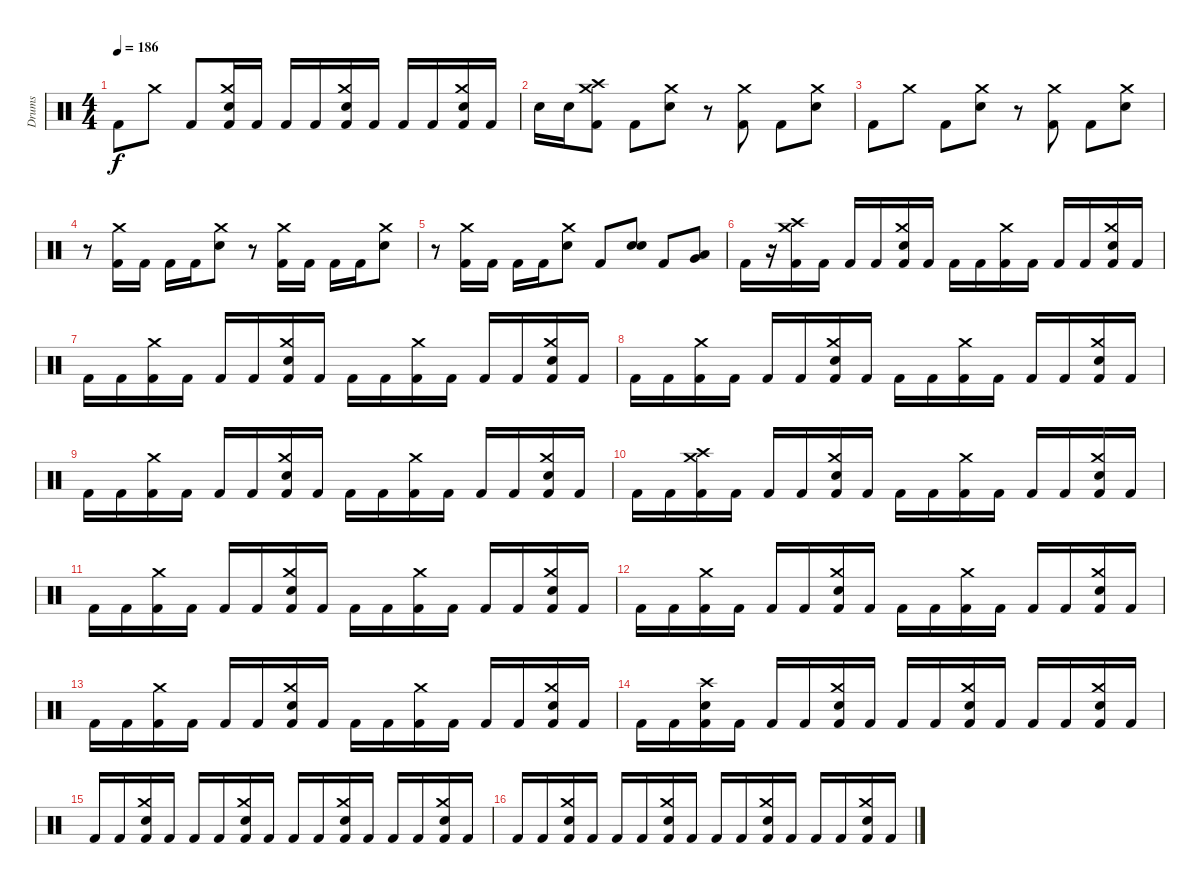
\track ("Drums" "Drums") {instrument percussion bank 177}
\staff {score}
\articulation defaults
\ts (4 4)
\tempo 186
\clef neutral
\ks c "Kick (hit) 2".8{dy f} "Crash medium (hit)".8 "Kick (hit) 2".8
("Crash medium (hit)" "Snare (hit) 2" "Kick (hit) 2").16 "Kick (hit) 2".16 "Kick (hit) 2".16 "Kick (hit) 2".16 ("Crash medium (hit)" "Snare (hit) 2" "Kick (hit) 2").16 "Kick (hit) 2".16 "Kick (hit) 2".16 "Kick (hit) 2".16 ("Crash medium (hit)" "Snare (hit) 2" "Kick (hit) 2").16 "Kick (hit) 2".16 |
"Snare (hit) 2".16 "Snare (hit) 2".16 ("Crash medium (hit)" "Crash high (hit)" "Kick (hit) 2").8 "Kick (hit) 2".8 ("Crash medium (hit)" "Snare (hit) 2").8 r.8 ("Crash medium (hit)" "Kick (hit) 2").8 "Kick (hit) 2".8 ("Crash medium (hit)" "Snare (hit) 2").8 |
"Kick (hit) 2".8 "Crash medium (hit)".8 "Kick (hit) 2".8 ("Crash medium (hit)" "Snare (hit) 2").8 r.8 ("Crash medium (hit)" "Kick (hit) 2").8 "Kick (hit) 2".8 ("Crash medium (hit)" "Snare (hit) 2").8 |
r.8 ("Crash medium (hit)" "Kick (hit) 2").16 "Kick (hit) 2".16 "Kick (hit) 2".16 "Kick (hit) 2".16 ("Crash medium (hit)" "Snare (hit) 2").8 r.8 ("Crash medium (hit)" "Kick (hit) 2").16 "Kick (hit) 2".16 "Kick (hit) 2".16 "Kick (hit) 2".16 ("Crash medium (hit)" "Snare (hit) 2").8 |
r.8 ("Crash medium (hit)" "Kick (hit) 2").16 "Kick (hit) 2".16 "Kick (hit) 2".16 "Kick (hit) 2".16 ("Crash medium (hit)" "Snare (hit) 2").8 "Kick (hit) 2".8 ("Snare (hit) 2" "Snare (hit) 2").8 "Kick (hit) 2".8 ("Very Low Tom (hit)" "Low Tom (hit)").8 |
"Kick (hit) 2".16 r.16 ("Crash high (hit)" "Crash medium (hit)" "Kick (hit) 2").16 "Kick (hit) 2".16 "Kick (hit) 2".16 "Kick (hit) 2".16 ("Crash medium (hit)" "Snare (hit) 2" "Kick (hit) 2").16 "Kick (hit) 2".16 "Kick (hit) 2".16 "Kick (hit) 2".16 ("Crash medium (hit)" "Kick (hit) 2").16 "Kick (hit) 2".16 "Kick (hit) 2".16 "Kick (hit) 2".16 ("Crash medium (hit)" "Snare (hit) 2" "Kick (hit) 2").16 "Kick (hit) 2".16 |
"Kick (hit) 2".16 "Kick (hit) 2".16 ("Crash medium (hit)" "Kick (hit) 2").16 "Kick (hit) 2".16 "Kick (hit) 2".16 "Kick (hit) 2".16 ("Crash medium (hit)" "Snare (hit) 2" "Kick (hit) 2").16 "Kick (hit) 2".16 "Kick (hit) 2".16 "Kick (hit) 2".16 ("Crash medium (hit)" "Kick (hit) 2").16 "Kick (hit) 2".16 "Kick (hit) 2".16 "Kick (hit) 2".16 ("Crash medium (hit)" "Snare (hit) 2" "Kick (hit) 2").16 "Kick (hit) 2".16 |
"Kick (hit) 2".16 "Kick (hit) 2".16 ("Crash medium (hit)" "Kick (hit) 2").16 "Kick (hit) 2".16 "Kick (hit) 2".16 "Kick (hit) 2".16 ("Crash medium (hit)" "Snare (hit) 2" "Kick (hit) 2").16 "Kick (hit) 2".16 "Kick (hit) 2".16 "Kick (hit) 2".16 ("Crash medium (hit)" "Kick (hit) 2").16 "Kick (hit) 2".16 "Kick (hit) 2".16 "Kick (hit) 2".16 ("Crash medium (hit)" "Snare (hit) 2" "Kick (hit) 2").16 "Kick (hit) 2".16 |
"Kick (hit) 2".16 "Kick (hit) 2".16 ("Crash medium (hit)" "Kick (hit) 2").16 "Kick (hit) 2".16 "Kick (hit) 2".16 "Kick (hit) 2".16 ("Crash medium (hit)" "Snare (hit) 2" "Kick (hit) 2").16 "Kick (hit) 2".16 "Kick (hit) 2".16 "Kick (hit) 2".16 ("Crash medium (hit)" "Kick (hit) 2").16 "Kick (hit) 2".16 "Kick (hit) 2".16 "Kick (hit) 2".16 ("Crash medium (hit)" "Snare (hit) 2" "Kick (hit) 2").16 "Kick (hit) 2".16 |
"Kick (hit) 2".16 "Kick (hit) 2".16 ("Crash high (hit)" "Crash medium (hit)" "Kick (hit) 2").16 "Kick (hit) 2".16 "Kick (hit) 2".16 "Kick (hit) 2".16 ("Crash medium (hit)" "Snare (hit) 2" "Kick (hit) 2").16 "Kick (hit) 2".16 "Kick (hit) 2".16 "Kick (hit) 2".16 ("Crash medium (hit)" "Kick (hit) 2").16 "Kick (hit) 2".16 "Kick (hit) 2".16 "Kick (hit) 2".16 ("Crash medium (hit)" "Snare (hit) 2" "Kick (hit) 2").16 "Kick (hit) 2".16 |
"Kick (hit) 2".16 "Kick (hit) 2".16 ("Crash medium (hit)" "Kick (hit) 2").16 "Kick (hit) 2".16 "Kick (hit) 2".16 "Kick (hit) 2".16 ("Crash medium (hit)" "Snare (hit) 2" "Kick (hit) 2").16 "Kick (hit) 2".16 "Kick (hit) 2".16 "Kick (hit) 2".16 ("Crash medium (hit)" "Kick (hit) 2").16 "Kick (hit) 2".16 "Kick (hit) 2".16 "Kick (hit) 2".16 ("Crash medium (hit)" "Snare (hit) 2" "Kick (hit) 2").16 "Kick (hit) 2".16 |
"Kick (hit) 2".16 "Kick (hit) 2".16 ("Crash medium (hit)" "Kick (hit) 2").16 "Kick (hit) 2".16 "Kick (hit) 2".16 "Kick (hit) 2".16 ("Crash medium (hit)" "Snare (hit) 2" "Kick (hit) 2").16 "Kick (hit) 2".16 "Kick (hit) 2".16 "Kick (hit) 2".16 ("Crash medium (hit)" "Kick (hit) 2").16 "Kick (hit) 2".16 "Kick (hit) 2".16 "Kick (hit) 2".16 ("Crash medium (hit)" "Snare (hit) 2" "Kick (hit) 2").16 "Kick (hit) 2".16 |
"Kick (hit) 2".16 "Kick (hit) 2".16 ("Crash medium (hit)" "Kick (hit) 2").16 "Kick (hit) 2".16 "Kick (hit) 2".16 "Kick (hit) 2".16 ("Crash medium (hit)" "Snare (hit) 2" "Kick (hit) 2").16 "Kick (hit) 2".16 "Kick (hit) 2".16 "Kick (hit) 2".16 ("Crash medium (hit)" "Kick (hit) 2").16 "Kick (hit) 2".16 "Kick (hit) 2".16 "Kick (hit) 2".16 ("Crash medium (hit)" "Snare (hit) 2" "Kick (hit) 2").16 "Kick (hit) 2".16 |
"Kick (hit) 2".16 "Kick (hit) 2".16 ("Crash high (hit)" "Snare (hit) 2" "Kick (hit) 2").16 "Kick (hit) 2".16 "Kick (hit) 2".16 "Kick (hit) 2".16 ("Crash medium (hit)" "Snare (hit) 2" "Kick (hit) 2").16 "Kick (hit) 2".16 "Kick (hit) 2".16 "Kick (hit) 2".16 ("Crash medium (hit)" "Snare (hit) 2" "Kick (hit) 2").16 "Kick (hit) 2".16 "Kick (hit) 2".16 "Kick (hit) 2".16 ("Crash medium (hit)" "Snare (hit) 2" "Kick (hit) 2").16 "Kick (hit) 2".16 |
"Kick (hit) 2".16 "Kick (hit) 2".16 ("Crash medium (hit)" "Snare (hit) 2" "Kick (hit) 2").16 "Kick (hit) 2".16 "Kick (hit) 2".16 "Kick (hit) 2".16 ("Crash medium (hit)" "Snare (hit) 2" "Kick (hit) 2").16 "Kick (hit) 2".16 "Kick (hit) 2".16 "Kick (hit) 2".16 ("Crash medium (hit)" "Snare (hit) 2" "Kick (hit) 2").16 "Kick (hit) 2".16 "Kick (hit) 2".16 "Kick (hit) 2".16 ("Crash medium (hit)" "Snare (hit) 2" "Kick (hit) 2").16 "Kick (hit) 2".16 |
"Kick (hit) 2".16 "Kick (hit) 2".16 ("Crash medium (hit)" "Snare (hit) 2" "Kick (hit) 2").16 "Kick (hit) 2".16 "Kick (hit) 2".16 "Kick (hit) 2".16 ("Crash medium (hit)" "Snare (hit) 2" "Kick (hit) 2").16 "Kick (hit) 2".16 "Kick (hit) 2".16 "Kick (hit) 2".16 ("Crash medium (hit)" "Snare (hit) 2" "Kick (hit) 2").16 "Kick (hit) 2".16 "Kick (hit) 2".16 "Kick (hit) 2".16 ("Crash medium (hit)" "Snare (hit) 2" "Kick (hit) 2").16 "Kick (hit) 2".16
